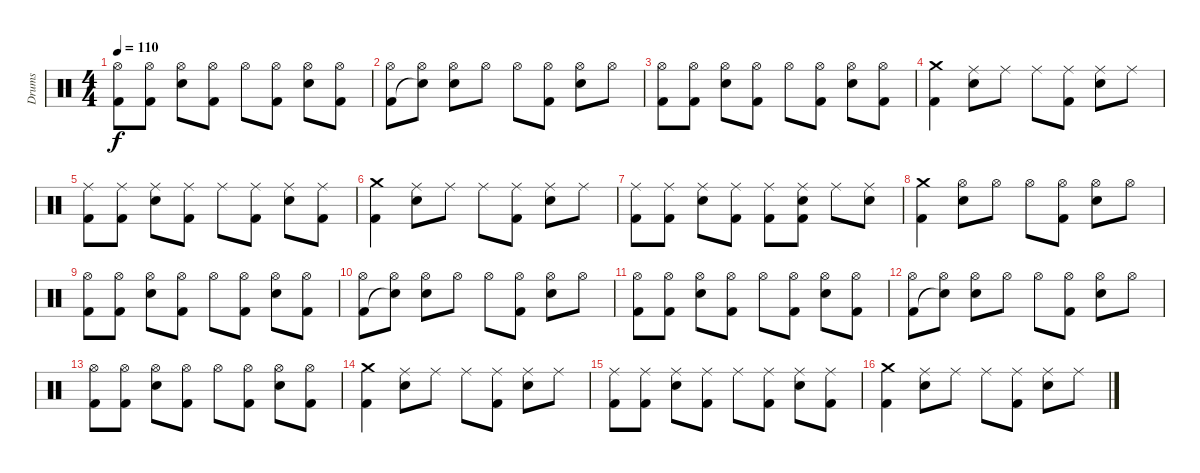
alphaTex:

\track ("Drums" "Drums") {instrument percussion}
\staff {score}
\articulation defaults
\ts (4 4)
\tempo 110
\clef neutral
\ks c
("Hi-Hat (open)" "Kick (hit) 2").8{dy f} ("Hi-Hat (open)" "Kick (hit) 2").8 ("Hi-Hat (open)" "Electric Snare (hit)").8 ("Hi-Hat (open)" "Kick (hit) 2").8 "Hi-Hat (open)".8 ("Hi-Hat (open)" "Kick (hit) 2").8 ("Hi-Hat (open)" "Electric Snare (hit)").8 ("Hi-Hat (open)" "Kick (hit) 2").8 |
("Hi-Hat (open)" "Kick (hit) 2").8 ("Hi-Hat (open)" "Snare (hit)"{t}).8 ("Hi-Hat (open)" "Electric Snare (hit)").8 "Hi-Hat (open)".8 "Hi-Hat (open)".8 ("Hi-Hat (open)" "Kick (hit) 2").8 ("Hi-Hat (open)" "Electric Snare (hit)").8 "Hi-Hat (open)".8 |
("Hi-Hat (open)" "Kick (hit) 2").8 ("Hi-Hat (open)" "Kick (hit) 2").8 ("Hi-Hat (open)" "Electric Snare (hit)").8 ("Hi-Hat (open)" "Kick (hit) 2").8 "Hi-Hat (open)".8 ("Hi-Hat (open)" "Kick (hit) 2").8 ("Hi-Hat (open)" "Electric Snare (hit)").8 ("Hi-Hat (open)" "Kick (hit) 2").8 |
("Crash medium (hit)" "Kick (hit) 2").4 ("Ride (middle)" "Electric Snare (hit)").8 "Ride (middle)".8 "Ride (middle)".8 ("Ride (middle)" "Kick (hit) 2").8 ("Ride (middle)" "Electric Snare (hit)").8 "Ride (middle)".8 |
("Ride (middle)" "Kick (hit) 2").8 ("Ride (middle)" "Kick (hit) 2").8 ("Ride (middle)" "Electric Snare (hit)").8 ("Ride (middle)" "Kick (hit) 2").8 "Ride (middle)".8 ("Ride (middle)" "Kick (hit) 2").8 ("Ride (middle)" "Electric Snare (hit)").8 ("Ride (middle)" "Kick (hit) 2").8 |
("Crash medium (hit)" "Kick (hit) 2").4 ("Ride (middle)" "Electric Snare (hit)").8 "Ride (middle)".8 "Ride (middle)".8 ("Ride (middle)" "Kick (hit) 2").8 ("Ride (middle)" "Electric Snare (hit)").8 "Ride (middle)".8 |
("Ride (middle)" "Kick (hit) 2").8 ("Ride (middle)" "Kick (hit) 2").8 ("Ride (middle)" "Electric Snare (hit)").8 ("Ride (middle)" "Kick (hit) 2").8 ("Ride (middle)" "Kick (hit) 2").8 ("Ride (middle)" "Electric Snare (hit)" "Kick (hit) 2").8 "Ride (middle)".8 ("Ride (middle)" "Electric Snare (hit)").8 |
("Crash medium (hit)" "Kick (hit) 2").4 ("Hi-Hat (open)" "Electric Snare (hit)").8 "Hi-Hat (open)".8 "Hi-Hat (open)".8 ("Hi-Hat (open)" "Kick (hit) 2").8 ("Hi-Hat (open)" "Electric Snare (hit)").8 "Hi-Hat (open)".8 |
("Hi-Hat (open)" "Kick (hit) 2").8 ("Hi-Hat (open)" "Kick (hit) 2").8 ("Hi-Hat (open)" "Electric Snare (hit)").8 ("Hi-Hat (open)" "Kick (hit) 2").8 "Hi-Hat (open)".8 ("Hi-Hat (open)" "Kick (hit) 2").8 ("Hi-Hat (open)" "Electric Snare (hit)").8 ("Hi-Hat (open)" "Kick (hit) 2").8 |
("Hi-Hat (open)" "Kick (hit) 2").8 ("Hi-Hat (open)" "Snare (hit)"{t}).8 ("Hi-Hat (open)" "Electric Snare (hit)").8 "Hi-Hat (open)".8 "Hi-Hat (open)".8 ("Hi-Hat (open)" "Kick (hit) 2").8 ("Hi-Hat (open)" "Electric Snare (hit)").8 "Hi-Hat (open)".8 |
("Hi-Hat (open)" "Kick (hit) 2").8 ("Hi-Hat (open)" "Kick (hit) 2").8 ("Hi-Hat (open)" "Electric Snare (hit)").8 ("Hi-Hat (open)" "Kick (hit) 2").8 "Hi-Hat (open)".8 ("Hi-Hat (open)" "Kick (hit) 2").8 ("Hi-Hat (open)" "Electric Snare (hit)").8 ("Hi-Hat (open)" "Kick (hit) 2").8 |
("Hi-Hat (open)" "Kick (hit) 2").8 ("Hi-Hat (open)" "Snare (hit)"{t}).8 ("Hi-Hat (open)" "Electric Snare (hit)").8 "Hi-Hat (open)".8 "Hi-Hat (open)".8 ("Hi-Hat (open)" "Kick (hit) 2").8 ("Hi-Hat (open)" "Electric Snare (hit)").8 "Hi-Hat (open)".8 |
("Hi-Hat (open)" "Kick (hit) 2").8 ("Hi-Hat (open)" "Kick (hit) 2").8 ("Hi-Hat (open)" "Electric Snare (hit)").8 ("Hi-Hat (open)" "Kick (hit) 2").8 "Hi-Hat (open)".8 ("Hi-Hat (open)" "Kick (hit) 2").8 ("Hi-Hat (open)" "Electric Snare (hit)").8 ("Hi-Hat (open)" "Kick (hit) 2").8 |
("Crash medium (hit)" "Kick (hit) 2").4 ("Ride (middle)" "Electric Snare (hit)").8 "Ride (middle)".8 "Ride (middle)".8 ("Ride (middle)" "Kick (hit) 2").8 ("Ride (middle)" "Electric Snare (hit)").8 "Ride (middle)".8 |
("Ride (middle)" "Kick (hit) 2").8 ("Ride (middle)" "Kick (hit) 2").8 ("Ride (middle)" "Electric Snare (hit)").8 ("Ride (middle)" "Kick (hit) 2").8 "Ride (middle)".8 ("Ride (middle)" "Kick (hit) 2").8 ("Ride (middle)" "Electric Snare (hit)").8 ("Ride (middle)" "Kick (hit) 2").8 |
("Crash medium (hit)" "Kick (hit) 2").4 ("Ride (middle)" "Electric Snare (hit)").8 "Ride (middle)".8 "Ride (middle)".8 ("Ride (middle)" "Kick (hit) 2").8 ("Ride (middle)" "Electric Snare (hit)").8 "Ride (middle)".8
